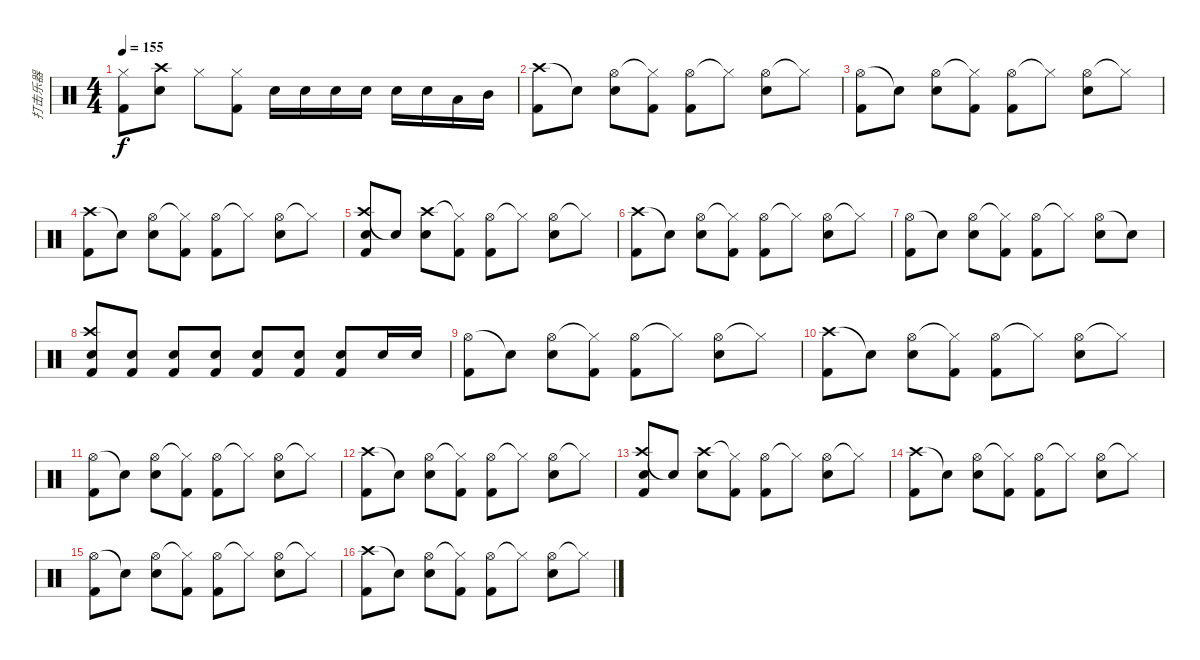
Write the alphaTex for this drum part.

\track ("打击乐器" "打击乐器") {instrument percussion}
\staff {score}
\articulation defaults
\ts (4 4)
\tempo 155
\clef neutral
\ks c
("Hi-Hat (closed)" "Kick (hit) 2").8{dy f} ("Crash high (hit)" "Snare (hit) 2").8 "Hi-Hat (closed)".8 ("Hi-Hat (closed)" "Kick (hit) 2").8 "Snare (hit) 2".16 "Snare (hit) 2".16 "Snare (hit) 2".16 "Snare (hit) 2".16 "Snare (hit) 2".16 "Snare (hit) 2".16 "Low Tom (hit)".16 "Mid Tom (hit)".16 |
("Crash high (hit)" "Kick (hit) 2").8 "Snare (hit)"{t}.8 ("Hi-Hat (open)" "Snare (hit) 2").8 ("Hi-Hat (closed)"{t} "Kick (hit) 2").8 ("Hi-Hat (open)" "Kick (hit) 2").8 "Hi-Hat (closed)"{t}.8 ("Hi-Hat (open)" "Snare (hit) 2").8 "Hi-Hat (closed)"{t}.8 |
("Hi-Hat (open)" "Kick (hit) 2").8 "Snare (hit)"{t}.8 ("Hi-Hat (open)" "Snare (hit) 2").8 ("Hi-Hat (closed)"{t} "Kick (hit) 2").8 ("Hi-Hat (open)" "Kick (hit) 2").8 "Hi-Hat (closed)"{t}.8 ("Hi-Hat (open)" "Snare (hit) 2").8 "Hi-Hat (closed)"{t}.8 |
("Crash high (hit)" "Kick (hit) 2").8 "Snare (hit)"{t}.8 ("Hi-Hat (open)" "Snare (hit) 2").8 ("Hi-Hat (closed)"{t} "Kick (hit) 2").8 ("Hi-Hat (open)" "Kick (hit) 2").8 "Hi-Hat (closed)"{t}.8 ("Hi-Hat (open)" "Snare (hit) 2").8 "Hi-Hat (closed)"{t}.8 |
("Crash high (hit)" "Snare (hit) 2" "Kick (hit) 2").8 "Snare (hit)"{t}.8 ("Crash high (hit)" "Snare (hit) 2").8 ("Hi-Hat (closed)"{t} "Kick (hit) 2").8 ("Hi-Hat (open)" "Kick (hit) 2").8 "Hi-Hat (closed)"{t}.8 ("Hi-Hat (open)" "Snare (hit) 2").8 "Hi-Hat (closed)"{t}.8 |
("Crash high (hit)" "Kick (hit) 2").8 "Snare (hit)"{t}.8 ("Hi-Hat (open)" "Snare (hit) 2").8 ("Hi-Hat (closed)"{t} "Kick (hit) 2").8 ("Hi-Hat (open)" "Kick (hit) 2").8 "Hi-Hat (closed)"{t}.8 ("Hi-Hat (open)" "Snare (hit) 2").8 "Hi-Hat (closed)"{t}.8 |
("Hi-Hat (open)" "Kick (hit) 2").8 "Snare (hit)"{t}.8 ("Hi-Hat (open)" "Snare (hit) 2").8 ("Hi-Hat (closed)"{t} "Kick (hit) 2").8 ("Hi-Hat (open)" "Kick (hit) 2").8 "Hi-Hat (closed)"{t}.8 ("Hi-Hat (open)" "Snare (hit) 2").8 "Snare (hit)"{t}.8 |
("Crash high (hit)" "Snare (hit) 2" "Kick (hit) 2").8 ("Snare (hit) 2" "Kick (hit) 2").8 ("Snare (hit) 2" "Kick (hit) 2").8 ("Snare (hit) 2" "Kick (hit) 2").8 ("Snare (hit) 2" "Kick (hit) 2").8 ("Snare (hit) 2" "Kick (hit) 2").8 ("Snare (hit) 2" "Kick (hit) 2").8 "Snare (hit) 2".16 "Snare (hit) 2".16 |
("Hi-Hat (open)" "Kick (hit) 2").8 "Snare (hit)"{t}.8 ("Hi-Hat (open)" "Snare (hit) 2").8 ("Hi-Hat (closed)"{t} "Kick (hit) 2").8 ("Hi-Hat (open)" "Kick (hit) 2").8 "Hi-Hat (closed)"{t}.8 ("Hi-Hat (open)" "Snare (hit) 2").8 "Hi-Hat (closed)"{t}.8 |
("Crash high (hit)" "Kick (hit) 2").8 "Snare (hit)"{t}.8 ("Hi-Hat (open)" "Snare (hit) 2").8 ("Hi-Hat (closed)"{t} "Kick (hit) 2").8 ("Hi-Hat (open)" "Kick (hit) 2").8 "Hi-Hat (closed)"{t}.8 ("Hi-Hat (open)" "Snare (hit) 2").8 "Hi-Hat (closed)"{t}.8 |
("Hi-Hat (open)" "Kick (hit) 2").8 "Snare (hit)"{t}.8 ("Hi-Hat (open)" "Snare (hit) 2").8 ("Hi-Hat (closed)"{t} "Kick (hit) 2").8 ("Hi-Hat (open)" "Kick (hit) 2").8 "Hi-Hat (closed)"{t}.8 ("Hi-Hat (open)" "Snare (hit) 2").8 "Hi-Hat (closed)"{t}.8 |
("Crash high (hit)" "Kick (hit) 2").8 "Snare (hit)"{t}.8 ("Hi-Hat (open)" "Snare (hit) 2").8 ("Hi-Hat (closed)"{t} "Kick (hit) 2").8 ("Hi-Hat (open)" "Kick (hit) 2").8 "Hi-Hat (closed)"{t}.8 ("Hi-Hat (open)" "Snare (hit) 2").8 "Hi-Hat (closed)"{t}.8 |
("Crash high (hit)" "Snare (hit) 2" "Kick (hit) 2").8 "Snare (hit)"{t}.8 ("Crash high (hit)" "Snare (hit) 2").8 ("Hi-Hat (closed)"{t} "Kick (hit) 2").8 ("Hi-Hat (open)" "Kick (hit) 2").8 "Hi-Hat (closed)"{t}.8 ("Hi-Hat (open)" "Snare (hit) 2").8 "Hi-Hat (closed)"{t}.8 |
("Crash high (hit)" "Kick (hit) 2").8 "Snare (hit)"{t}.8 ("Hi-Hat (open)" "Snare (hit) 2").8 ("Hi-Hat (closed)"{t} "Kick (hit) 2").8 ("Hi-Hat (open)" "Kick (hit) 2").8 "Hi-Hat (closed)"{t}.8 ("Hi-Hat (open)" "Snare (hit) 2").8 "Hi-Hat (closed)"{t}.8 |
("Hi-Hat (open)" "Kick (hit) 2").8 "Snare (hit)"{t}.8 ("Hi-Hat (open)" "Snare (hit) 2").8 ("Hi-Hat (closed)"{t} "Kick (hit) 2").8 ("Hi-Hat (open)" "Kick (hit) 2").8 "Hi-Hat (closed)"{t}.8 ("Hi-Hat (open)" "Snare (hit) 2").8 "Hi-Hat (closed)"{t}.8 |
("Crash high (hit)" "Kick (hit) 2").8 "Snare (hit)"{t}.8 ("Hi-Hat (open)" "Snare (hit) 2").8 ("Hi-Hat (closed)"{t} "Kick (hit) 2").8 ("Hi-Hat (open)" "Kick (hit) 2").8 "Hi-Hat (closed)"{t}.8 ("Hi-Hat (open)" "Snare (hit) 2").8 "Hi-Hat (closed)"{t}.8
